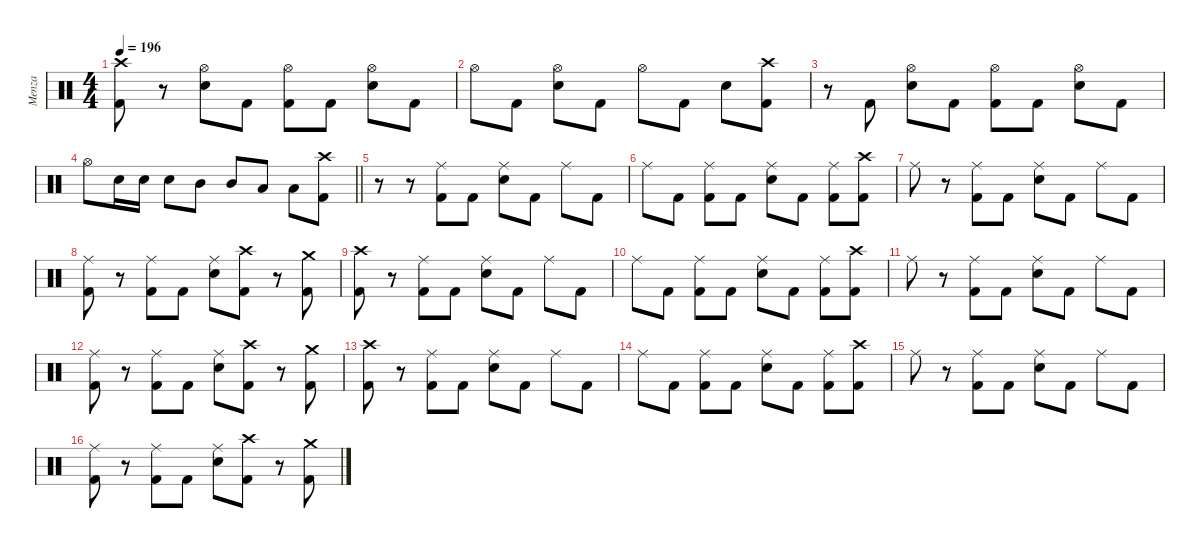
\defaultSystemsLayout 4
\hideDynamics
\bracketExtendMode nobrackets
\firstSystemTrackNameMode fullname
\otherSystemsTrackNameOrientation horizontal
\track ("Menza" "drm.") {instrument percussion}
\staff {score}
\articulation defaults
\ts (4 4)
\tempo 196
\clef neutral
\ks c
("Crash high (hit)" "Kick (hit) 2").8{dy fff beam Down} r.8{beam Down} ("Hi-Hat (open)" "Snare (hit) 2").8{dy f beam Down} "Kick (hit) 2".8{dy fff beam Down} ("Hi-Hat (open)" "Kick (hit) 2").8{dy f beam Down} "Kick (hit) 2".8{dy fff beam Down} ("Hi-Hat (open)" "Snare (hit) 2").8{dy f beam Down} "Kick (hit) 2".8{dy fff beam Down} |
"Hi-Hat (open)".8{dy f beam Down} "Kick (hit) 2".8{dy fff beam Down} ("Hi-Hat (open)" "Snare (hit) 2").8{dy f beam Down} "Kick (hit) 2".8{dy fff beam Down} "Hi-Hat (open)".8{dy f beam Down} "Kick (hit) 2".8{dy fff beam Down} "Snare (hit) 2".8{beam Down} ("Crash high (hit)" "Kick (hit) 2").8{beam Down} |
r.8{beam Down} "Kick (hit) 2".8{beam Up} ("Hi-Hat (open)" "Snare (hit) 2").8{dy f beam Down} "Kick (hit) 2".8{dy fff beam Down} ("Hi-Hat (open)" "Kick (hit) 2").8{dy f beam Down} "Kick (hit) 2".8{dy fff beam Down} ("Hi-Hat (open)" "Snare (hit) 2").8{dy f beam Down} "Kick (hit) 2".8{dy fff beam Down} |
\barLineRight lightlight "Hi-Hat (open)".8{dy f beam Down} "Snare (hit) 2".16{beam Down} "Snare (hit) 2".16{beam Down} "Snare (hit) 2".8{beam Down} "Mid Tom (hit)".8{beam Down} "Mid Tom (hit)".8{dy ff beam Up} "Low Tom (hit)".8{beam Up} "Low Floor Tom (hit)".8{beam Down}
("Crash high (hit)" "Kick (hit) 2").8{beam Down} |
r.8{beam Down} r.8{beam Down} ("Ride (middle)" "Kick (hit) 2").8{beam Down} "Kick (hit) 2".8{dy fff beam Down} ("Ride (middle)" "Snare (hit) 2").8{dy ff beam Down} "Kick (hit) 2".8{dy fff beam Down} "Ride (middle)".8{dy ff beam Down} "Kick (hit) 2".8{dy fff beam Down} |
"Ride (middle)".8{dy ff beam Down} "Kick (hit) 2".8{dy fff beam Down} ("Ride (middle)" "Kick (hit) 2").8{dy ff beam Down} "Kick (hit) 2".8{dy fff beam Down} ("Ride (middle)" "Snare (hit) 2").8{dy ff beam Down} "Kick (hit) 2".8{dy fff beam Down} ("Ride (middle)" "Kick (hit) 2").8{dy f beam Down} ("Crash high (hit)" "Kick (hit) 2").8{beam Down} |
"Ride (middle)".8{beam Down} r.8{beam Down} ("Ride (middle)" "Kick (hit) 2").8{dy ff beam Down} "Kick (hit) 2".8{dy fff beam Down} ("Ride (middle)" "Snare (hit) 2").8{dy ff beam Down} "Kick (hit) 2".8{dy fff beam Down} "Ride (middle)".8{dy ff beam Down} "Kick (hit) 2".8{dy fff beam Down} |
("Ride (middle)" "Kick (hit) 2").8{dy ff beam Down} r.8{beam Down} ("Ride (middle)" "Kick (hit) 2").8{beam Down} "Kick (hit) 2".8{dy fff beam Down} ("Ride (middle)" "Snare (hit) 2").8{dy ff beam Down} ("Crash high (hit)" "Kick (hit) 2").8{dy fff beam Down} r.8{beam Down} ("Crash medium (hit)" "Kick (hit) 2").8{beam Down} |
("Crash high (hit)" "Kick (hit) 2").8{dy f beam Down} r.8{beam Down} ("Ride (middle)" "Kick (hit) 2").8{dy ff beam Down} "Kick (hit) 2".8{dy fff beam Down} ("Ride (middle)" "Snare (hit) 2").8{dy ff beam Down} "Kick (hit) 2".8{dy fff beam Down} "Ride (middle)".8{dy ff beam Down} "Kick (hit) 2".8{dy fff beam Down} |
"Ride (middle)".8{dy ff beam Down} "Kick (hit) 2".8{dy fff beam Down} ("Ride (middle)" "Kick (hit) 2").8{dy ff beam Down} "Kick (hit) 2".8{dy fff beam Down} ("Ride (middle)" "Snare (hit) 2").8{dy ff beam Down} "Kick (hit) 2".8{dy fff beam Down} ("Ride (middle)" "Kick (hit) 2").8{dy f beam Down} ("Crash high (hit)" "Kick (hit) 2").8{beam Down} |
"Ride (middle)".8{beam Down} r.8{beam Down} ("Ride (middle)" "Kick (hit) 2").8{dy ff beam Down} "Kick (hit) 2".8{dy fff beam Down} ("Ride (middle)" "Snare (hit) 2").8{dy ff beam Down} "Kick (hit) 2".8{dy fff beam Down} "Ride (middle)".8{dy ff beam Down} "Kick (hit) 2".8{dy fff beam Down} |
("Ride (middle)" "Kick (hit) 2").8{dy ff beam Down} r.8{beam Down} ("Ride (middle)" "Kick (hit) 2").8{beam Down} "Kick (hit) 2".8{dy fff beam Down} ("Ride (middle)" "Snare (hit) 2").8{dy ff beam Down} ("Crash high (hit)" "Kick (hit) 2").8{dy fff beam Down} r.8{beam Down} ("Crash medium (hit)" "Kick (hit) 2").8{beam Down} |
("Crash high (hit)" "Kick (hit) 2").8{dy f beam Down} r.8{beam Down} ("Ride (middle)" "Kick (hit) 2").8{dy ff beam Down} "Kick (hit) 2".8{dy fff beam Down} ("Ride (middle)" "Snare (hit) 2").8{dy ff beam Down} "Kick (hit) 2".8{dy fff beam Down} "Ride (middle)".8{dy ff beam Down} "Kick (hit) 2".8{dy fff beam Down} |
"Ride (middle)".8{dy ff beam Down} "Kick (hit) 2".8{dy fff beam Down} ("Ride (middle)" "Kick (hit) 2").8{dy ff beam Down} "Kick (hit) 2".8{dy fff beam Down} ("Ride (middle)" "Snare (hit) 2").8{dy ff beam Down} "Kick (hit) 2".8{dy fff beam Down} ("Ride (middle)" "Kick (hit) 2").8{dy f beam Down} ("Crash high (hit)" "Kick (hit) 2").8{beam Down} |
"Ride (middle)".8{beam Down} r.8{beam Down} ("Ride (middle)" "Kick (hit) 2").8{dy ff beam Down} "Kick (hit) 2".8{dy fff beam Down} ("Ride (middle)" "Snare (hit) 2").8{dy ff beam Down} "Kick (hit) 2".8{dy fff beam Down} "Ride (middle)".8{dy ff beam Down} "Kick (hit) 2".8{dy fff beam Down} |
("Ride (middle)" "Kick (hit) 2").8{dy ff beam Down} r.8{beam Down} ("Ride (middle)" "Kick (hit) 2").8{beam Down} "Kick (hit) 2".8{dy fff beam Down} ("Ride (middle)" "Snare (hit) 2").8{dy ff beam Down} ("Crash high (hit)" "Kick (hit) 2").8{dy fff beam Down} r.8{beam Down} ("Crash medium (hit)" "Kick (hit) 2").8{beam Down}
